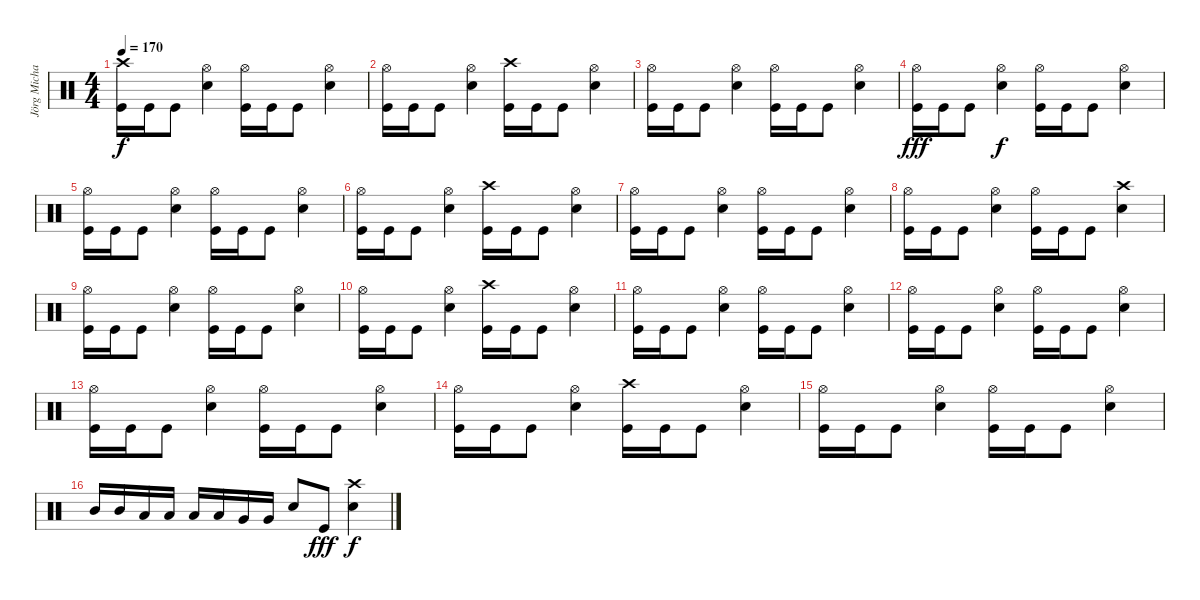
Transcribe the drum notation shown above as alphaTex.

\track ("Jörg Michael" "Jörg Micha") {instrument percussion}
\staff {score}
\articulation defaults
\ts (4 4)
\tempo 170
\clef neutral
\ks c
("Crash high (hit)" "Kick (hit)").16{dy f} "Kick (hit)".16 "Kick (hit)".8 ("Hi-Hat (open)" "Electric Snare (hit)").4 ("Hi-Hat (open)" "Kick (hit)").16 "Kick (hit)".16 "Kick (hit)".8 ("Hi-Hat (open)" "Electric Snare (hit)").4 |
("Hi-Hat (open)" "Kick (hit)").16 "Kick (hit)".16 "Kick (hit)".8 ("Hi-Hat (open)" "Electric Snare (hit)").4 ("Crash high (hit)" "Kick (hit)").16 "Kick (hit)".16 "Kick (hit)".8 ("Hi-Hat (open)" "Electric Snare (hit)").4 |
("Hi-Hat (open)" "Kick (hit)").16 "Kick (hit)".16 "Kick (hit)".8 ("Hi-Hat (open)" "Electric Snare (hit)").4 ("Hi-Hat (open)" "Kick (hit)").16 "Kick (hit)".16 "Kick (hit)".8 ("Hi-Hat (open)" "Electric Snare (hit)").4 |
("Hi-Hat (open)" "Kick (hit)").16{dy fff} "Kick (hit)".16 "Kick (hit)".8 ("Hi-Hat (open)" "Electric Snare (hit)").4{dy f} ("Hi-Hat (open)" "Kick (hit)").16 "Kick (hit)".16 "Kick (hit)".8 ("Hi-Hat (open)" "Electric Snare (hit)").4 |
("Hi-Hat (open)" "Kick (hit)").16 "Kick (hit)".16 "Kick (hit)".8 ("Hi-Hat (open)" "Electric Snare (hit)").4 ("Hi-Hat (open)" "Kick (hit)").16 "Kick (hit)".16 "Kick (hit)".8 ("Hi-Hat (open)" "Electric Snare (hit)").4 |
("Hi-Hat (open)" "Kick (hit)").16 "Kick (hit)".16 "Kick (hit)".8 ("Hi-Hat (open)" "Electric Snare (hit)").4 ("Crash high (hit)" "Kick (hit)").16 "Kick (hit)".16 "Kick (hit)".8 ("Hi-Hat (open)" "Electric Snare (hit)").4 |
("Hi-Hat (open)" "Kick (hit)").16 "Kick (hit)".16 "Kick (hit)".8 ("Hi-Hat (open)" "Electric Snare (hit)").4 ("Hi-Hat (open)" "Kick (hit)").16 "Kick (hit)".16 "Kick (hit)".8 ("Hi-Hat (open)" "Electric Snare (hit)").4 |
("Hi-Hat (open)" "Kick (hit)").16 "Kick (hit)".16 "Kick (hit)".8 ("Hi-Hat (open)" "Electric Snare (hit)").4 ("Hi-Hat (open)" "Kick (hit)").16 "Kick (hit)".16 "Kick (hit)".8 ("Crash high (hit)" "Electric Snare (hit)").4 |
("Hi-Hat (open)" "Kick (hit)").16 "Kick (hit)".16 "Kick (hit)".8 ("Hi-Hat (open)" "Electric Snare (hit)").4 ("Hi-Hat (open)" "Kick (hit)").16 "Kick (hit)".16 "Kick (hit)".8 ("Hi-Hat (open)" "Electric Snare (hit)").4 |
("Hi-Hat (open)" "Kick (hit)").16 "Kick (hit)".16 "Kick (hit)".8 ("Hi-Hat (open)" "Electric Snare (hit)").4 ("Crash high (hit)" "Kick (hit)").16 "Kick (hit)".16 "Kick (hit)".8 ("Hi-Hat (open)" "Electric Snare (hit)").4 |
("Hi-Hat (open)" "Kick (hit)").16 "Kick (hit)".16 "Kick (hit)".8 ("Hi-Hat (open)" "Electric Snare (hit)").4 ("Hi-Hat (open)" "Kick (hit)").16 "Kick (hit)".16 "Kick (hit)".8 ("Hi-Hat (open)" "Electric Snare (hit)").4 |
("Hi-Hat (open)" "Kick (hit)").16 "Kick (hit)".16 "Kick (hit)".8 ("Hi-Hat (open)" "Electric Snare (hit)").4 ("Hi-Hat (open)" "Kick (hit)").16 "Kick (hit)".16 "Kick (hit)".8 ("Hi-Hat (open)" "Electric Snare (hit)").4 |
("Hi-Hat (open)" "Kick (hit)").16 "Kick (hit)".16 "Kick (hit)".8 ("Hi-Hat (open)" "Electric Snare (hit)").4 ("Hi-Hat (open)" "Kick (hit)").16 "Kick (hit)".16 "Kick (hit)".8 ("Hi-Hat (open)" "Electric Snare (hit)").4 |
("Hi-Hat (open)" "Kick (hit)").16 "Kick (hit)".16 "Kick (hit)".8 ("Hi-Hat (open)" "Electric Snare (hit)").4 ("Crash high (hit)" "Kick (hit)").16 "Kick (hit)".16 "Kick (hit)".8 ("Hi-Hat (open)" "Electric Snare (hit)").4 |
("Hi-Hat (open)" "Kick (hit)").16 "Kick (hit)".16 "Kick (hit)".8 ("Hi-Hat (open)" "Electric Snare (hit)").4 ("Hi-Hat (open)" "Kick (hit)").16 "Kick (hit)".16 "Kick (hit)".8 ("Hi-Hat (open)" "Electric Snare (hit)").4 |
"Mid Tom (hit)".16 "Mid Tom (hit)".16 "Low Tom (hit)".16 "Low Tom (hit)".16 "Low Floor Tom (hit)".16 "Low Floor Tom (hit)".16 "Very Low Tom (hit)".16 "Very Low Tom (hit)".16 "Electric Snare (hit)".8 "Kick (hit)".8{dy fff} ("Crash high (hit)" "Electric Snare (hit)").4{dy f}
